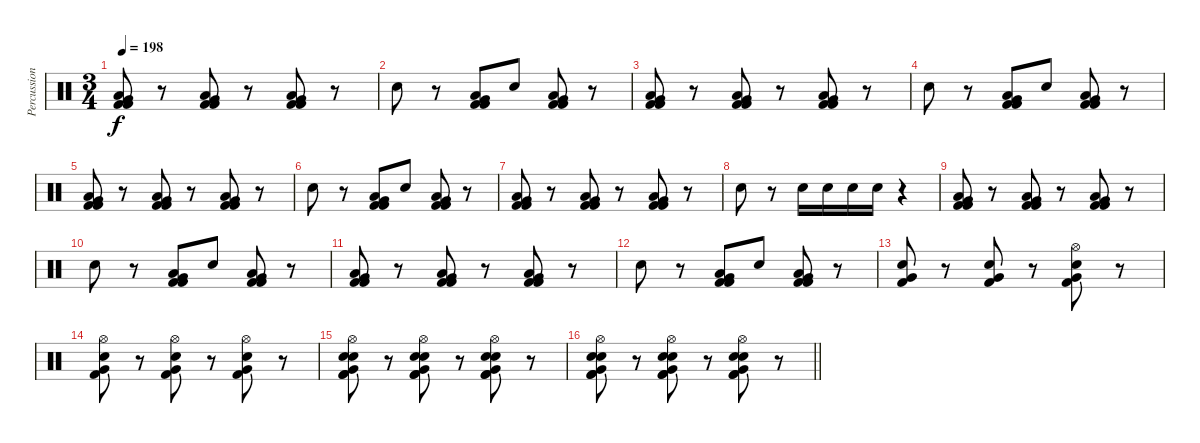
\track ("Percussions" "Percussion") {instrument percussion}
\staff {score}
\articulation defaults
\ts (3 4)
\tempo 198
\clef neutral
\ks c
("Low Floor Tom (hit)" "Kick (hit) 2" "Kick (hit) 2" "Very Low Tom (hit)").8{dy f} r.8 ("Low Floor Tom (hit)" "Kick (hit) 2" "Kick (hit) 2" "Very Low Tom (hit)").8 r.8 ("Low Floor Tom (hit)" "Kick (hit) 2" "Kick (hit) 2" "Very Low Tom (hit)").8 r.8 |
"Electric Snare (hit)".8 r.8 ("Low Floor Tom (hit)" "Kick (hit) 2" "Kick (hit) 2" "Very Low Tom (hit)").8 "Electric Snare (hit)".8 ("Low Floor Tom (hit)" "Kick (hit) 2" "Kick (hit) 2" "Very Low Tom (hit)").8 r.8 |
("Low Floor Tom (hit)" "Kick (hit) 2" "Kick (hit) 2" "Very Low Tom (hit)").8 r.8 ("Low Floor Tom (hit)" "Kick (hit) 2" "Kick (hit) 2" "Very Low Tom (hit)").8 r.8 ("Low Floor Tom (hit)" "Kick (hit) 2" "Kick (hit) 2" "Very Low Tom (hit)").8 r.8 |
"Electric Snare (hit)".8 r.8 ("Low Floor Tom (hit)" "Kick (hit) 2" "Kick (hit) 2" "Very Low Tom (hit)").8 "Electric Snare (hit)".8 ("Low Floor Tom (hit)" "Kick (hit) 2" "Kick (hit) 2" "Very Low Tom (hit)").8 r.8 |
("Low Floor Tom (hit)" "Kick (hit) 2" "Kick (hit) 2" "Very Low Tom (hit)").8 r.8 ("Low Floor Tom (hit)" "Kick (hit) 2" "Kick (hit) 2" "Very Low Tom (hit)").8 r.8 ("Low Floor Tom (hit)" "Kick (hit) 2" "Kick (hit) 2" "Very Low Tom (hit)").8 r.8 |
"Electric Snare (hit)".8 r.8 ("Low Floor Tom (hit)" "Kick (hit) 2" "Kick (hit) 2" "Very Low Tom (hit)").8 "Electric Snare (hit)".8 ("Low Floor Tom (hit)" "Kick (hit) 2" "Kick (hit) 2" "Very Low Tom (hit)").8 r.8 |
("Low Floor Tom (hit)" "Kick (hit) 2" "Kick (hit) 2" "Very Low Tom (hit)").8 r.8 ("Low Floor Tom (hit)" "Kick (hit) 2" "Kick (hit) 2" "Very Low Tom (hit)").8 r.8 ("Low Floor Tom (hit)" "Kick (hit) 2" "Kick (hit) 2" "Very Low Tom (hit)").8 r.8 |
"Electric Snare (hit)".8 r.8 "Electric Snare (hit)".16 "Electric Snare (hit)".16 "Electric Snare (hit)".16 "Electric Snare (hit)".16 r.4 |
("Low Floor Tom (hit)" "Kick (hit) 2" "Kick (hit) 2" "Very Low Tom (hit)").8 r.8 ("Low Floor Tom (hit)" "Kick (hit) 2" "Kick (hit) 2" "Very Low Tom (hit)").8 r.8 ("Low Floor Tom (hit)" "Kick (hit) 2" "Kick (hit) 2" "Very Low Tom (hit)").8 r.8 |
"Electric Snare (hit)".8 r.8 ("Low Floor Tom (hit)" "Kick (hit) 2" "Kick (hit) 2" "Very Low Tom (hit)").8 "Electric Snare (hit)".8 ("Low Floor Tom (hit)" "Kick (hit) 2" "Kick (hit) 2" "Very Low Tom (hit)").8 r.8 |
("Low Floor Tom (hit)" "Kick (hit) 2" "Kick (hit) 2" "Very Low Tom (hit)").8 r.8 ("Low Floor Tom (hit)" "Kick (hit) 2" "Kick (hit) 2" "Very Low Tom (hit)").8 r.8 ("Low Floor Tom (hit)" "Kick (hit) 2" "Kick (hit) 2" "Very Low Tom (hit)").8 r.8 |
"Electric Snare (hit)".8 r.8 ("Low Floor Tom (hit)" "Kick (hit) 2" "Kick (hit) 2" "Very Low Tom (hit)").8 "Electric Snare (hit)".8 ("Low Floor Tom (hit)" "Kick (hit) 2" "Kick (hit) 2" "Very Low Tom (hit)").8 r.8 |
("Kick (hit) 2" "Very Low Tom (hit)" "Electric Snare (hit)").8{volume 10} r.8 ("Kick (hit) 2" "Very Low Tom (hit)" "Electric Snare (hit)").8{volume 11} r.8 ("Kick (hit) 2" "Hi-Hat (open)" "Very Low Tom (hit)" "Electric Snare (hit)").8{volume 12} r.8 |
("Kick (hit) 2" "Hi-Hat (open)" "Very Low Tom (hit)" "Electric Snare (hit)").8{volume 13} r.8 ("Kick (hit) 2" "Hi-Hat (open)" "Very Low Tom (hit)" "Electric Snare (hit)").8{volume 14} r.8 ("Kick (hit) 2" "Hi-Hat (open)" "Very Low Tom (hit)" "Electric Snare (hit)").8{volume 14} r.8 |
("Electric Snare (hit)" "Kick (hit) 2" "Kick (hit) 2" "Hi-Hat (open)" "Very Low Tom (hit)" "Electric Snare (hit)").8 r.8 ("Electric Snare (hit)" "Kick (hit) 2" "Kick (hit) 2" "Hi-Hat (open)" "Very Low Tom (hit)" "Electric Snare (hit)").8 r.8 ("Electric Snare (hit)" "Kick (hit) 2" "Kick (hit) 2" "Hi-Hat (open)" "Very Low Tom (hit)" "Electric Snare (hit)").8 r.8 |
\barLineRight lightlight
("Electric Snare (hit)" "Kick (hit) 2" "Kick (hit) 2" "Hi-Hat (open)" "Very Low Tom (hit)" "Electric Snare (hit)").8 r.8 ("Electric Snare (hit)" "Kick (hit) 2" "Kick (hit) 2" "Hi-Hat (open)" "Very Low Tom (hit)" "Electric Snare (hit)").8 r.8 ("Electric Snare (hit)" "Kick (hit) 2" "Kick (hit) 2" "Hi-Hat (open)" "Very Low Tom (hit)" "Electric Snare (hit)").8 r.8
